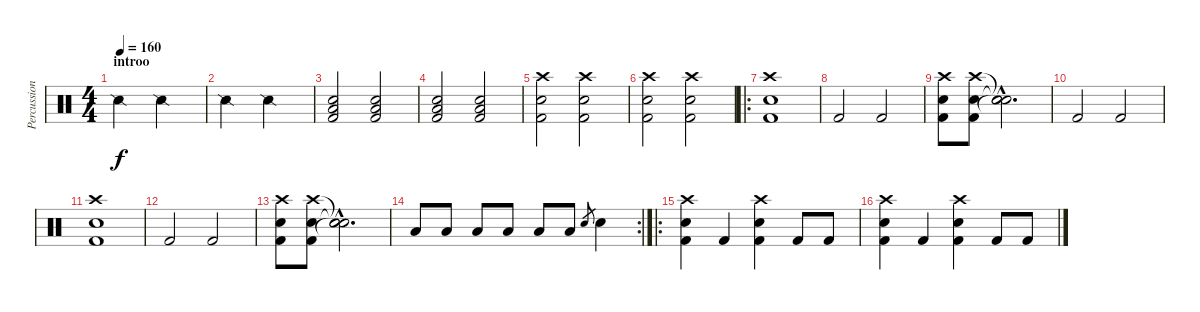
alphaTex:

\track ("Percussions" "Percussion") {instrument percussion}
\staff {score}
\articulation defaults
\ts (4 4)
\section ("" "introo")
\tempo 160
\clef neutral
\ks c "Snare (side stick) 2".2{dy f} "Snare (side stick) 2".2
|
"Snare (side stick) 2".2 "Snare (side stick) 2".2 |
("Kick (hit) 2" "Electric Snare (hit)" "Low Tom (hit)").2 ("Kick (hit) 2" "Low Tom (hit)" "Electric Snare (hit)").2 |
("Kick (hit) 2" "Electric Snare (hit)" "Low Tom (hit)").2 ("Kick (hit) 2" "Low Tom (hit)" "Electric Snare (hit)").2 |
("Kick (hit) 2" "Electric Snare (hit)" "Crash high (hit)").2 ("Kick (hit) 2" "Crash high (hit)" "Electric Snare (hit)").2 |
("Kick (hit) 2" "Electric Snare (hit)" "Crash high (hit)").2 ("Kick (hit) 2" "Crash high (hit)" "Electric Snare (hit)").2 |
\ro
("Electric Snare (hit)" "Kick (hit) 2" "Crash high (hit)").1 |
"Kick (hit) 2".2 "Kick (hit) 2".2 |
("Crash high (hit)" "Electric Snare (hit)" "Kick (hit) 2").8 ("Crash high (hit)" "Kick (hit) 2" "Electric Snare (hit)").8 ("Snare (hit)"{hac t} "Snare (hit)"{hac t} "Snare (hit)"{hac t}).2{d} |
"Kick (hit) 2".2 "Kick (hit) 2".2 |
("Electric Snare (hit)" "Crash high (hit)" "Kick (hit) 2").1 |
"Kick (hit) 2".2 "Kick (hit) 2".2 |
("Crash high (hit)" "Electric Snare (hit)" "Kick (hit) 2").8 ("Crash high (hit)" "Electric Snare (hit)" "Kick (hit) 2").8 ("Snare (hit)"{hac t} "Snare (hit)"{hac t} "Snare (hit)"{hac t}).2{d} |
\rc 2 "Low Tom (hit)".8 "Low Tom (hit)".8 "Low Tom (hit)".8 "Low Tom (hit)".8 "Low Tom (hit)".8 "Low Tom (hit)".8 "Electric Snare (hit)".8{gr} "Electric Snare (hit)".4
|
\ro
("Crash high (hit)" "Kick (hit) 2" "Electric Snare (hit)").4 "Kick (hit) 2".4 ("Crash high (hit)" "Kick (hit) 2" "Electric Snare (hit)").4 "Kick (hit) 2".8 "Kick (hit) 2".8 |
("Electric Snare (hit)" "Crash high (hit)" "Kick (hit) 2").4 "Kick (hit) 2".4 ("Electric Snare (hit)" "Crash high (hit)" "Kick (hit) 2").4 "Kick (hit) 2".8 "Kick (hit) 2".8
